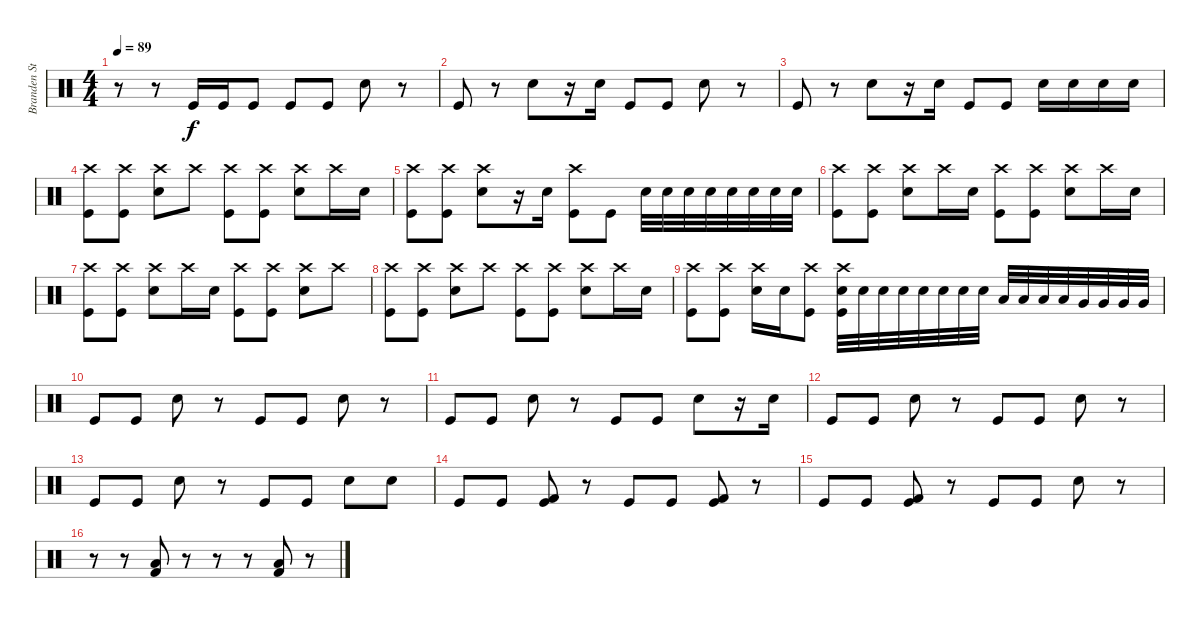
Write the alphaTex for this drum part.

\track ("Branden Steineckert - Drums" "Branden St") {instrument percussion}
\staff {score}
\articulation defaults
\ts (4 4)
\tempo 89
\clef neutral
\ks c
r.8{dy f} r.8 "Kick (hit)".16 "Kick (hit)".16 "Kick (hit)".8 "Kick (hit)".8 "Kick (hit)".8 "Electric Snare (hit)".8 r.8 |
"Kick (hit)".8 r.8 "Electric Snare (hit)".8 r.16 "Electric Snare (hit)".16 "Kick (hit)".8 "Kick (hit)".8 "Electric Snare (hit)".8 r.8 |
"Kick (hit)".8 r.8 "Electric Snare (hit)".8 r.16 "Electric Snare (hit)".16 "Kick (hit)".8 "Kick (hit)".8 "Electric Snare (hit)".16 "Electric Snare (hit)".16 "Electric Snare (hit)".16 "Electric Snare (hit)".16 |
("Crash high (hit)" "Kick (hit)").8 ("Crash high (hit)" "Kick (hit)").8 ("Crash high (hit)" "Electric Snare (hit)").8 "Crash high (hit)".8 ("Crash high (hit)" "Kick (hit)").8 ("Crash high (hit)" "Kick (hit)").8 ("Crash high (hit)" "Electric Snare (hit)").8 "Crash high (hit)".16 "Electric Snare (hit)".16 |
("Crash high (hit)" "Kick (hit)").8 ("Crash high (hit)" "Kick (hit)").8 ("Crash high (hit)" "Electric Snare (hit)").8 r.16 "Electric Snare (hit)".16 ("Crash high (hit)" "Kick (hit)").8 "Kick (hit)".8 "Electric Snare (hit)".32 "Electric Snare (hit)".32 "Electric Snare (hit)".32 "Electric Snare (hit)".32 "Electric Snare (hit)".32 "Electric Snare (hit)".32 "Electric Snare (hit)".32 "Electric Snare (hit)".32 |
("Crash high (hit)" "Kick (hit)").8 ("Crash high (hit)" "Kick (hit)").8 ("Crash high (hit)" "Electric Snare (hit)").8 "Crash high (hit)".16 "Electric Snare (hit)".16 ("Crash high (hit)" "Kick (hit)").8 ("Crash high (hit)" "Kick (hit)").8 ("Crash high (hit)" "Electric Snare (hit)").8 "Crash high (hit)".16 "Electric Snare (hit)".16 |
("Crash high (hit)" "Kick (hit)").8 ("Crash high (hit)" "Kick (hit)").8 ("Crash high (hit)" "Electric Snare (hit)").8 "Crash high (hit)".16 "Electric Snare (hit)".16 ("Crash high (hit)" "Kick (hit)").8 ("Crash high (hit)" "Kick (hit)").8 ("Crash high (hit)" "Electric Snare (hit)").8 "Crash high (hit)".8 |
("Crash high (hit)" "Kick (hit)").8 ("Crash high (hit)" "Kick (hit)").8 ("Crash high (hit)" "Electric Snare (hit)").8 "Crash high (hit)".8 ("Crash high (hit)" "Kick (hit)").8 ("Crash high (hit)" "Kick (hit)").8 ("Crash high (hit)" "Electric Snare (hit)").8 "Crash high (hit)".16 "Electric Snare (hit)".16 |
("Crash high (hit)" "Kick (hit)").8 ("Crash high (hit)" "Kick (hit)").8 ("Crash high (hit)" "Electric Snare (hit)").16 "Electric Snare (hit)".16 ("Crash high (hit)" "Kick (hit)").8 ("Crash high (hit)" "Electric Snare (hit)" "Kick (hit)").32 "Electric Snare (hit)".32 "Electric Snare (hit)".32 "Electric Snare (hit)".32 "Electric Snare (hit)".32 "Electric Snare (hit)".32 "Electric Snare (hit)".32 "Electric Snare (hit)".32 "Low Tom (hit)".32 "Low Tom (hit)".32 "Low Tom (hit)".32 "Low Tom (hit)".32 "Very Low Tom (hit)".32 "Very Low Tom (hit)".32 "Very Low Tom (hit)".32 "Very Low Tom (hit)".32 |
"Kick (hit)".8 "Kick (hit)".8 "Electric Snare (hit)".8 r.8 "Kick (hit)".8 "Kick (hit)".8 "Electric Snare (hit)".8 r.8 |
"Kick (hit)".8 "Kick (hit)".8 "Electric Snare (hit)".8 r.8 "Kick (hit)".8 "Kick (hit)".8 "Electric Snare (hit)".8 r.16 "Electric Snare (hit)".16 |
"Kick (hit)".8 "Kick (hit)".8 "Electric Snare (hit)".8 r.8 "Kick (hit)".8 "Kick (hit)".8 "Electric Snare (hit)".8 r.8 |
"Kick (hit)".8 "Kick (hit)".8 "Electric Snare (hit)".8 r.8 "Kick (hit)".8 "Kick (hit)".8 "Electric Snare (hit)".8 "Electric Snare (hit)".8 |
"Kick (hit)".8 "Kick (hit)".8 ("Kick (hit) 2" "Kick (hit)").8 r.8 "Kick (hit)".8 "Kick (hit)".8 ("Kick (hit) 2" "Kick (hit)").8 r.8 |
"Kick (hit)".8 "Kick (hit)".8 ("Kick (hit) 2" "Kick (hit)").8 r.8 "Kick (hit)".8 "Kick (hit)".8 "Electric Snare (hit)".8 r.8 |
r.8 r.8 ("Low Floor Tom (hit)" "Kick (hit) 2").8 r.8 r.8 r.8 ("Low Floor Tom (hit)" "Kick (hit) 2").8 r.8
